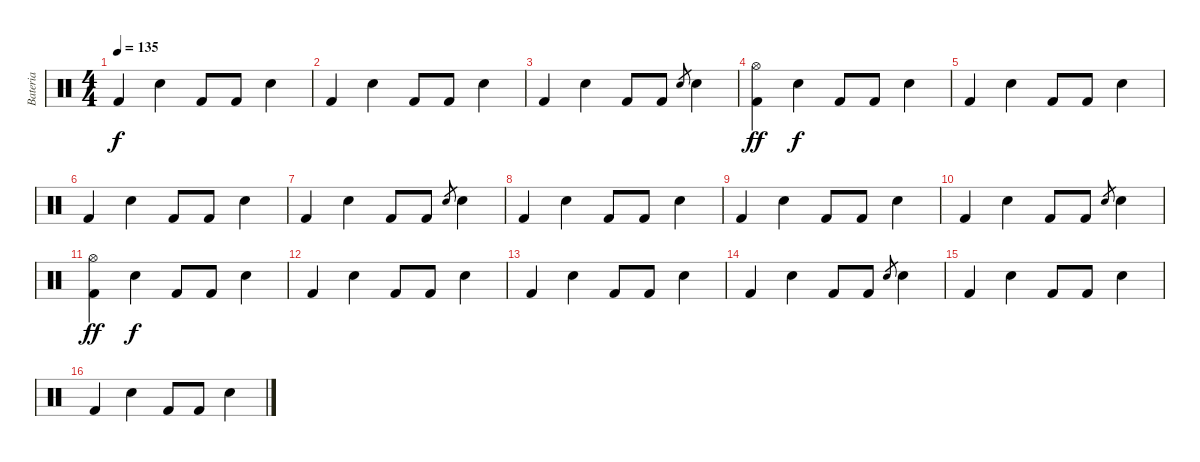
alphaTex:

\track ("Bateria" "Bateria") {instrument percussion}
\staff {score}
\articulation defaults
\ts (4 4)
\tempo 135
\clef neutral
\ks c "Kick (hit) 2".4{dy f} "Electric Snare (hit)".4 "Kick (hit) 2".8 "Kick (hit) 2".8 "Electric Snare (hit)".4
|
"Kick (hit) 2".4 "Electric Snare (hit)".4 "Kick (hit) 2".8 "Kick (hit) 2".8 "Electric Snare (hit)".4 |
"Kick (hit) 2".4 "Electric Snare (hit)".4 "Kick (hit) 2".8 "Kick (hit) 2".8 "Electric Snare (hit)".8{gr} "Electric Snare (hit)".4 |
("Hi-Hat (open)" "Kick (hit) 2").4{dy ff} "Electric Snare (hit)".4{dy f} "Kick (hit) 2".8 "Kick (hit) 2".8 "Electric Snare (hit)".4 |
"Kick (hit) 2".4 "Electric Snare (hit)".4 "Kick (hit) 2".8 "Kick (hit) 2".8 "Electric Snare (hit)".4 |
"Kick (hit) 2".4 "Electric Snare (hit)".4 "Kick (hit) 2".8 "Kick (hit) 2".8 "Electric Snare (hit)".4 |
"Kick (hit) 2".4 "Electric Snare (hit)".4 "Kick (hit) 2".8 "Kick (hit) 2".8 "Electric Snare (hit)".8{gr} "Electric Snare (hit)".4 |
"Kick (hit) 2".4 "Electric Snare (hit)".4 "Kick (hit) 2".8 "Kick (hit) 2".8 "Electric Snare (hit)".4 |
"Kick (hit) 2".4 "Electric Snare (hit)".4 "Kick (hit) 2".8 "Kick (hit) 2".8 "Electric Snare (hit)".4 |
"Kick (hit) 2".4 "Electric Snare (hit)".4 "Kick (hit) 2".8 "Kick (hit) 2".8 "Electric Snare (hit)".8{gr} "Electric Snare (hit)".4 |
("Hi-Hat (open)" "Kick (hit) 2").4{dy ff} "Electric Snare (hit)".4{dy f} "Kick (hit) 2".8 "Kick (hit) 2".8 "Electric Snare (hit)".4 |
"Kick (hit) 2".4 "Electric Snare (hit)".4 "Kick (hit) 2".8 "Kick (hit) 2".8 "Electric Snare (hit)".4 |
"Kick (hit) 2".4 "Electric Snare (hit)".4 "Kick (hit) 2".8 "Kick (hit) 2".8 "Electric Snare (hit)".4 |
"Kick (hit) 2".4 "Electric Snare (hit)".4 "Kick (hit) 2".8 "Kick (hit) 2".8 "Electric Snare (hit)".8{gr} "Electric Snare (hit)".4 |
"Kick (hit) 2".4 "Electric Snare (hit)".4 "Kick (hit) 2".8 "Kick (hit) 2".8 "Electric Snare (hit)".4 |
"Kick (hit) 2".4 "Electric Snare (hit)".4 "Kick (hit) 2".8 "Kick (hit) 2".8 "Electric Snare (hit)".4
